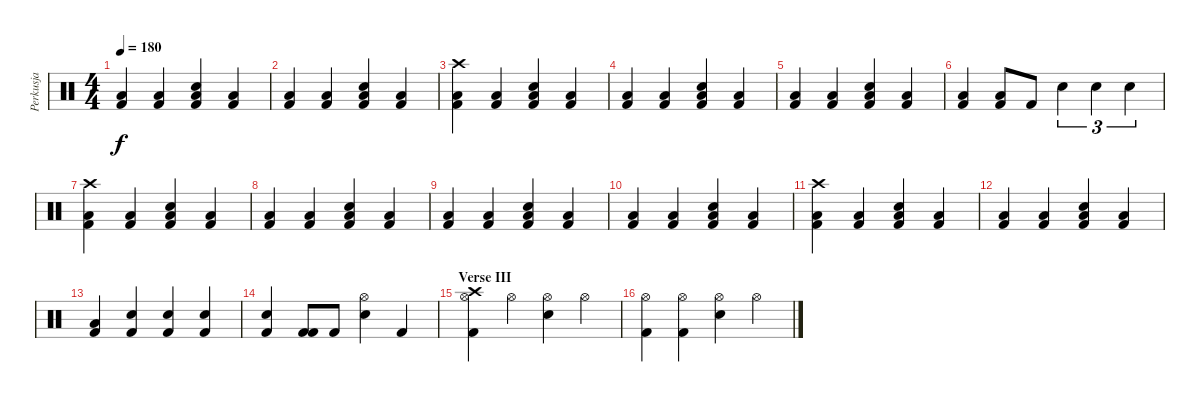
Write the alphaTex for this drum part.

\track ("Perkusja" "Perkusja") {instrument percussion}
\staff {score}
\articulation defaults
\ts (4 4)
\tempo 180
\clef neutral
\ks c
("Kick (hit) 2" "Low Tom (hit)").4{dy f} ("Kick (hit) 2" "Low Tom (hit)").4 ("Kick (hit) 2" "Low Tom (hit)" "Snare (hit) 2").4 ("Kick (hit) 2" "Low Tom (hit)").4 |
("Kick (hit) 2" "Low Tom (hit)").4 ("Kick (hit) 2" "Low Tom (hit)").4 ("Kick (hit) 2" "Low Tom (hit)" "Snare (hit) 2").4 ("Kick (hit) 2" "Low Tom (hit)").4 |
("Kick (hit) 2" "Low Tom (hit)" "Crash high (hit)").4 ("Kick (hit) 2" "Low Tom (hit)").4 ("Kick (hit) 2" "Low Tom (hit)" "Snare (hit) 2").4 ("Kick (hit) 2" "Low Tom (hit)").4 |
("Kick (hit) 2" "Low Tom (hit)").4 ("Kick (hit) 2" "Low Tom (hit)").4 ("Kick (hit) 2" "Low Tom (hit)" "Snare (hit) 2").4 ("Kick (hit) 2" "Low Tom (hit)").4 |
("Kick (hit) 2" "Low Tom (hit)").4 ("Kick (hit) 2" "Low Tom (hit)").4 ("Kick (hit) 2" "Low Tom (hit)" "Snare (hit) 2").4 ("Kick (hit) 2" "Low Tom (hit)").4 |
("Kick (hit) 2" "Low Tom (hit)").4 ("Kick (hit) 2" "Low Tom (hit)").8 "Kick (hit) 2".8 "Snare (hit) 2".4{tu (3 2)} "Snare (hit) 2".4{tu (3 2)} "Snare (hit) 2".4{tu (3 2)} |
("Kick (hit) 2" "Low Tom (hit)" "Crash high (hit)").4 ("Kick (hit) 2" "Low Tom (hit)").4 ("Kick (hit) 2" "Low Tom (hit)" "Snare (hit) 2").4 ("Kick (hit) 2" "Low Tom (hit)").4 |
("Kick (hit) 2" "Low Tom (hit)").4 ("Kick (hit) 2" "Low Tom (hit)").4 ("Kick (hit) 2" "Low Tom (hit)" "Snare (hit) 2").4 ("Kick (hit) 2" "Low Tom (hit)").4 |
("Kick (hit) 2" "Low Tom (hit)").4 ("Kick (hit) 2" "Low Tom (hit)").4 ("Kick (hit) 2" "Low Tom (hit)" "Snare (hit) 2").4 ("Kick (hit) 2" "Low Tom (hit)").4 |
("Kick (hit) 2" "Low Tom (hit)").4 ("Kick (hit) 2" "Low Tom (hit)").4 ("Kick (hit) 2" "Low Tom (hit)" "Snare (hit) 2").4 ("Kick (hit) 2" "Low Tom (hit)").4 |
("Kick (hit) 2" "Low Tom (hit)" "Crash high (hit)").4 ("Kick (hit) 2" "Low Tom (hit)").4 ("Kick (hit) 2" "Low Tom (hit)" "Snare (hit) 2").4 ("Kick (hit) 2" "Low Tom (hit)").4 |
("Kick (hit) 2" "Low Tom (hit)").4 ("Kick (hit) 2" "Low Tom (hit)").4 ("Kick (hit) 2" "Low Tom (hit)" "Snare (hit) 2").4 ("Kick (hit) 2" "Low Tom (hit)").4 |
("Kick (hit) 2" "Low Tom (hit)").4 ("Kick (hit) 2" "Snare (hit) 2").4 ("Kick (hit) 2" "Snare (hit) 2").4 ("Kick (hit) 2" "Snare (hit) 2").4 |
("Kick (hit) 2" "Snare (hit) 2").4 ("Kick (hit) 2" "Kick (hit) 2").8 "Kick (hit) 2".8 ("Snare (hit) 2" "Hi-Hat (open)").4 "Kick (hit) 2".4 |
\section ("" "Verse III")
("Hi-Hat (open)" "Kick (hit) 2" "Crash high (hit)").4 "Hi-Hat (open)".4 ("Hi-Hat (open)" "Snare (hit) 2").4 "Hi-Hat (open)".4 |
("Hi-Hat (open)" "Kick (hit) 2").4 ("Hi-Hat (open)" "Kick (hit) 2").4 ("Hi-Hat (open)" "Snare (hit) 2").4 "Hi-Hat (open)".4
